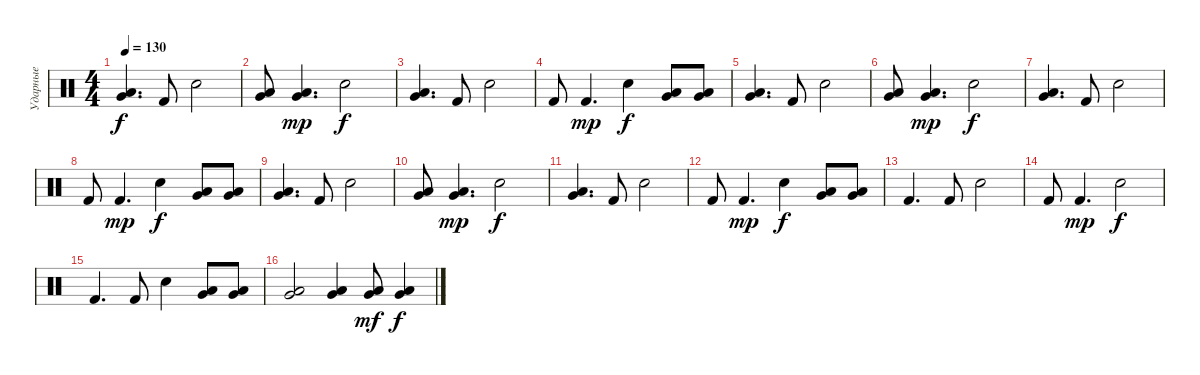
\track ("Ударные" "Ударные") {instrument percussion}
\staff {score}
\articulation defaults
\ts (4 4)
\tempo 130
\clef neutral
\ks c
("Low Floor Tom (hit)" "Very Low Tom (hit)").4{d dy f} "Kick (hit) 2".8 "Snare (hit) 2".2 |
("Low Floor Tom (hit)" "Very Low Tom (hit)").8 ("Low Floor Tom (hit)" "Very Low Tom (hit)").4{d dy mp} "Snare (hit) 2".2{dy f} |
("Low Floor Tom (hit)" "Very Low Tom (hit)").4{d} "Kick (hit) 2".8 "Snare (hit) 2".2 |
"Kick (hit) 2".8 "Kick (hit) 2".4{d dy mp} "Snare (hit) 2".4{dy f} ("Low Floor Tom (hit)" "Very Low Tom (hit)").8 ("Low Floor Tom (hit)" "Very Low Tom (hit)").8 |
("Low Floor Tom (hit)" "Very Low Tom (hit)").4{d} "Kick (hit) 2".8 "Snare (hit) 2".2 |
("Low Floor Tom (hit)" "Very Low Tom (hit)").8 ("Low Floor Tom (hit)" "Very Low Tom (hit)").4{d dy mp} "Snare (hit) 2".2{dy f} |
("Low Floor Tom (hit)" "Very Low Tom (hit)").4{d} "Kick (hit) 2".8 "Snare (hit) 2".2 |
"Kick (hit) 2".8 "Kick (hit) 2".4{d dy mp} "Snare (hit) 2".4{dy f} ("Low Floor Tom (hit)" "Very Low Tom (hit)").8 ("Low Floor Tom (hit)" "Very Low Tom (hit)").8 |
("Low Floor Tom (hit)" "Very Low Tom (hit)").4{d} "Kick (hit) 2".8 "Snare (hit) 2".2 |
("Low Floor Tom (hit)" "Very Low Tom (hit)").8 ("Low Floor Tom (hit)" "Very Low Tom (hit)").4{d dy mp} "Snare (hit) 2".2{dy f} |
("Low Floor Tom (hit)" "Very Low Tom (hit)").4{d} "Kick (hit) 2".8 "Snare (hit) 2".2 |
"Kick (hit) 2".8 "Kick (hit) 2".4{d dy mp} "Snare (hit) 2".4{dy f} ("Low Floor Tom (hit)" "Very Low Tom (hit)").8 ("Low Floor Tom (hit)" "Very Low Tom (hit)").8 |
"Kick (hit) 2".4{d} "Kick (hit) 2".8 "Snare (hit) 2".2 |
"Kick (hit) 2".8 "Kick (hit) 2".4{d dy mp} "Snare (hit) 2".2{dy f} |
"Kick (hit) 2".4{d} "Kick (hit) 2".8 "Snare (hit) 2".4 ("Low Floor Tom (hit)" "Very Low Tom (hit)").8 ("Low Floor Tom (hit)" "Very Low Tom (hit)").8 |
("Low Floor Tom (hit)" "Very Low Tom (hit)").2 ("Low Floor Tom (hit)" "Very Low Tom (hit)").4 ("Low Floor Tom (hit)" "Very Low Tom (hit)").8{dy mf} ("Low Floor Tom (hit)" "Very Low Tom (hit)").4{dy f}
